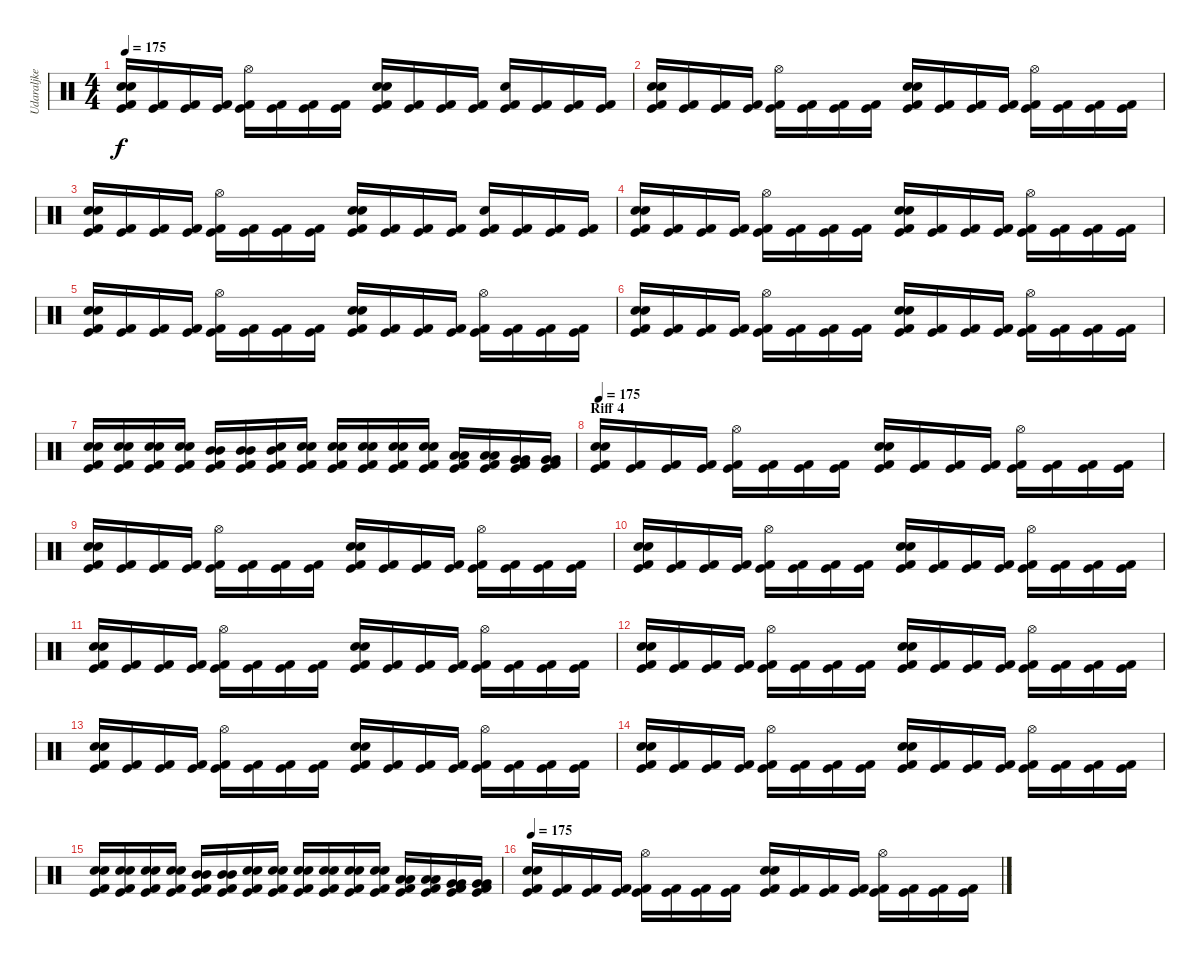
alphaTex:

\track ("Udaraljke" "Udaraljke") {instrument percussion}
\staff {score}
\articulation defaults
\ts (4 4)
\tempo 175
\clef neutral
\ks c
("Electric Snare (hit)" "Snare (hit) 2" "Kick (hit) 2" "Kick (hit)").16{dy f} ("Kick (hit) 2" "Kick (hit)").16 ("Kick (hit) 2" "Kick (hit)").16 ("Kick (hit) 2" "Kick (hit)").16 ("Hi-Hat (open)" "Kick (hit) 2" "Kick (hit)").16 ("Kick (hit) 2" "Kick (hit)").16 ("Kick (hit) 2" "Kick (hit)").16 ("Kick (hit) 2" "Kick (hit)").16 ("Electric Snare (hit)" "Snare (hit) 2" "Kick (hit) 2" "Kick (hit)").16 ("Kick (hit) 2" "Kick (hit)").16 ("Kick (hit) 2" "Kick (hit)").16 ("Kick (hit) 2" "Kick (hit)").16 ("Electric Snare (hit)" "Kick (hit) 2" "Kick (hit)").16 ("Kick (hit) 2" "Kick (hit)").16 ("Kick (hit) 2" "Kick (hit)").16 ("Kick (hit) 2" "Kick (hit)").16 |
("Electric Snare (hit)" "Snare (hit) 2" "Kick (hit) 2" "Kick (hit)").16 ("Kick (hit) 2" "Kick (hit)").16 ("Kick (hit) 2" "Kick (hit)").16 ("Kick (hit) 2" "Kick (hit)").16 ("Hi-Hat (open)" "Kick (hit) 2" "Kick (hit)").16 ("Kick (hit) 2" "Kick (hit)").16 ("Kick (hit) 2" "Kick (hit)").16 ("Kick (hit) 2" "Kick (hit)").16 ("Electric Snare (hit)" "Snare (hit) 2" "Kick (hit) 2" "Kick (hit)").16 ("Kick (hit) 2" "Kick (hit)").16 ("Kick (hit) 2" "Kick (hit)").16 ("Kick (hit) 2" "Kick (hit)").16 ("Hi-Hat (open)" "Kick (hit) 2" "Kick (hit)").16 ("Kick (hit) 2" "Kick (hit)").16 ("Kick (hit) 2" "Kick (hit)").16 ("Kick (hit) 2" "Kick (hit)").16 |
("Electric Snare (hit)" "Snare (hit) 2" "Kick (hit) 2" "Kick (hit)").16 ("Kick (hit) 2" "Kick (hit)").16 ("Kick (hit) 2" "Kick (hit)").16 ("Kick (hit) 2" "Kick (hit)").16 ("Hi-Hat (open)" "Kick (hit) 2" "Kick (hit)").16 ("Kick (hit) 2" "Kick (hit)").16 ("Kick (hit) 2" "Kick (hit)").16 ("Kick (hit) 2" "Kick (hit)").16 ("Electric Snare (hit)" "Snare (hit) 2" "Kick (hit) 2" "Kick (hit)").16 ("Kick (hit) 2" "Kick (hit)").16 ("Kick (hit) 2" "Kick (hit)").16 ("Kick (hit) 2" "Kick (hit)").16 ("Electric Snare (hit)" "Kick (hit) 2" "Kick (hit)").16 ("Kick (hit) 2" "Kick (hit)").16 ("Kick (hit) 2" "Kick (hit)").16 ("Kick (hit) 2" "Kick (hit)").16 |
("Electric Snare (hit)" "Snare (hit) 2" "Kick (hit) 2" "Kick (hit)").16 ("Kick (hit) 2" "Kick (hit)").16 ("Kick (hit) 2" "Kick (hit)").16 ("Kick (hit) 2" "Kick (hit)").16 ("Hi-Hat (open)" "Kick (hit) 2" "Kick (hit)").16 ("Kick (hit) 2" "Kick (hit)").16 ("Kick (hit) 2" "Kick (hit)").16 ("Kick (hit) 2" "Kick (hit)").16 ("Electric Snare (hit)" "Snare (hit) 2" "Kick (hit) 2" "Kick (hit)").16 ("Kick (hit) 2" "Kick (hit)").16 ("Kick (hit) 2" "Kick (hit)").16 ("Kick (hit) 2" "Kick (hit)").16 ("Hi-Hat (open)" "Kick (hit) 2" "Kick (hit)").16 ("Kick (hit) 2" "Kick (hit)").16 ("Kick (hit) 2" "Kick (hit)").16 ("Kick (hit) 2" "Kick (hit)").16 |
("Electric Snare (hit)" "Snare (hit) 2" "Kick (hit) 2" "Kick (hit)").16 ("Kick (hit) 2" "Kick (hit)").16 ("Kick (hit) 2" "Kick (hit)").16 ("Kick (hit) 2" "Kick (hit)").16 ("Hi-Hat (open)" "Kick (hit) 2" "Kick (hit)").16 ("Kick (hit) 2" "Kick (hit)").16 ("Kick (hit) 2" "Kick (hit)").16 ("Kick (hit) 2" "Kick (hit)").16 ("Electric Snare (hit)" "Snare (hit) 2" "Kick (hit) 2" "Kick (hit)").16 ("Kick (hit) 2" "Kick (hit)").16 ("Kick (hit) 2" "Kick (hit)").16 ("Kick (hit) 2" "Kick (hit)").16 ("Hi-Hat (open)" "Kick (hit) 2" "Kick (hit)").16 ("Kick (hit) 2" "Kick (hit)").16 ("Kick (hit) 2" "Kick (hit)").16 ("Kick (hit) 2" "Kick (hit)").16 |
("Electric Snare (hit)" "Snare (hit) 2" "Kick (hit) 2" "Kick (hit)").16 ("Kick (hit) 2" "Kick (hit)").16 ("Kick (hit) 2" "Kick (hit)").16 ("Kick (hit) 2" "Kick (hit)").16 ("Hi-Hat (open)" "Kick (hit) 2" "Kick (hit)").16 ("Kick (hit) 2" "Kick (hit)").16 ("Kick (hit) 2" "Kick (hit)").16 ("Kick (hit) 2" "Kick (hit)").16 ("Electric Snare (hit)" "Snare (hit) 2" "Kick (hit) 2" "Kick (hit)").16 ("Kick (hit) 2" "Kick (hit)").16 ("Kick (hit) 2" "Kick (hit)").16 ("Kick (hit) 2" "Kick (hit)").16 ("Hi-Hat (open)" "Kick (hit) 2" "Kick (hit)").16 ("Kick (hit) 2" "Kick (hit)").16 ("Kick (hit) 2" "Kick (hit)").16 ("Kick (hit) 2" "Kick (hit)").16 |
("Electric Snare (hit)" "Electric Snare (hit)" "Kick (hit) 2" "Kick (hit)").16 ("Electric Snare (hit)" "Electric Snare (hit)" "Kick (hit) 2" "Kick (hit)").16 ("Electric Snare (hit)" "Electric Snare (hit)" "Kick (hit) 2" "Kick (hit)").16 ("Electric Snare (hit)" "Electric Snare (hit)" "Kick (hit) 2" "Kick (hit)").16 ("Mid Tom (hit)" "Mid Tom (hit)" "Kick (hit) 2" "Kick (hit)").16 ("Mid Tom (hit)" "Mid Tom (hit)" "Kick (hit) 2" "Kick (hit)").16 ("Electric Snare (hit)" "Mid Tom (hit)" "Kick (hit) 2" "Kick (hit)").16 ("Electric Snare (hit)" "Electric Snare (hit)" "Kick (hit) 2" "Kick (hit)").16 ("Electric Snare (hit)" "Electric Snare (hit)" "Kick (hit) 2" "Kick (hit)").16 ("Electric Snare (hit)" "Electric Snare (hit)" "Kick (hit) 2" "Kick (hit)").16 ("Electric Snare (hit)" "Electric Snare (hit)" "Kick (hit) 2" "Kick (hit)").16 ("Electric Snare (hit)" "Electric Snare (hit)" "Kick (hit) 2" "Kick (hit)").16 ("Low Tom (hit)" "Low Tom (hit)" "Kick (hit) 2" "Kick (hit)").16 ("Low Tom (hit)" "Low Tom (hit)" "Kick (hit) 2" "Kick (hit)").16 ("Very Low Tom (hit)" "Very Low Tom (hit)" "Kick (hit) 2" "Kick (hit)").16 ("Very Low Tom (hit)" "Very Low Tom (hit)" "Kick (hit) 2" "Kick (hit)").16 |
\section ("" "Riff 4")
\tempo 175
("Electric Snare (hit)" "Snare (hit) 2" "Kick (hit) 2" "Kick (hit)").16 ("Kick (hit) 2" "Kick (hit)").16 ("Kick (hit) 2" "Kick (hit)").16 ("Kick (hit) 2" "Kick (hit)").16 ("Hi-Hat (open)" "Kick (hit) 2" "Kick (hit)").16 ("Kick (hit) 2" "Kick (hit)").16 ("Kick (hit) 2" "Kick (hit)").16 ("Kick (hit) 2" "Kick (hit)").16 ("Electric Snare (hit)" "Snare (hit) 2" "Kick (hit) 2" "Kick (hit)").16 ("Kick (hit) 2" "Kick (hit)").16 ("Kick (hit) 2" "Kick (hit)").16 ("Kick (hit) 2" "Kick (hit)").16 ("Hi-Hat (open)" "Kick (hit) 2" "Kick (hit)").16 ("Kick (hit) 2" "Kick (hit)").16 ("Kick (hit) 2" "Kick (hit)").16 ("Kick (hit) 2" "Kick (hit)").16 |
("Electric Snare (hit)" "Snare (hit) 2" "Kick (hit) 2" "Kick (hit)").16 ("Kick (hit) 2" "Kick (hit)").16 ("Kick (hit) 2" "Kick (hit)").16 ("Kick (hit) 2" "Kick (hit)").16 ("Hi-Hat (open)" "Kick (hit) 2" "Kick (hit)").16 ("Kick (hit) 2" "Kick (hit)").16 ("Kick (hit) 2" "Kick (hit)").16 ("Kick (hit) 2" "Kick (hit)").16 ("Electric Snare (hit)" "Snare (hit) 2" "Kick (hit) 2" "Kick (hit)").16 ("Kick (hit) 2" "Kick (hit)").16 ("Kick (hit) 2" "Kick (hit)").16 ("Kick (hit) 2" "Kick (hit)").16 ("Hi-Hat (open)" "Kick (hit) 2" "Kick (hit)").16 ("Kick (hit) 2" "Kick (hit)").16 ("Kick (hit) 2" "Kick (hit)").16 ("Kick (hit) 2" "Kick (hit)").16 |
("Electric Snare (hit)" "Snare (hit) 2" "Kick (hit) 2" "Kick (hit)").16 ("Kick (hit) 2" "Kick (hit)").16 ("Kick (hit) 2" "Kick (hit)").16 ("Kick (hit) 2" "Kick (hit)").16 ("Hi-Hat (open)" "Kick (hit) 2" "Kick (hit)").16 ("Kick (hit) 2" "Kick (hit)").16 ("Kick (hit) 2" "Kick (hit)").16 ("Kick (hit) 2" "Kick (hit)").16 ("Electric Snare (hit)" "Snare (hit) 2" "Kick (hit) 2" "Kick (hit)").16 ("Kick (hit) 2" "Kick (hit)").16 ("Kick (hit) 2" "Kick (hit)").16 ("Kick (hit) 2" "Kick (hit)").16 ("Hi-Hat (open)" "Kick (hit) 2" "Kick (hit)").16 ("Kick (hit) 2" "Kick (hit)").16 ("Kick (hit) 2" "Kick (hit)").16 ("Kick (hit) 2" "Kick (hit)").16 |
("Electric Snare (hit)" "Snare (hit) 2" "Kick (hit) 2" "Kick (hit)").16 ("Kick (hit) 2" "Kick (hit)").16 ("Kick (hit) 2" "Kick (hit)").16 ("Kick (hit) 2" "Kick (hit)").16 ("Hi-Hat (open)" "Kick (hit) 2" "Kick (hit)").16 ("Kick (hit) 2" "Kick (hit)").16 ("Kick (hit) 2" "Kick (hit)").16 ("Kick (hit) 2" "Kick (hit)").16 ("Electric Snare (hit)" "Snare (hit) 2" "Kick (hit) 2" "Kick (hit)").16 ("Kick (hit) 2" "Kick (hit)").16 ("Kick (hit) 2" "Kick (hit)").16 ("Kick (hit) 2" "Kick (hit)").16 ("Hi-Hat (open)" "Kick (hit) 2" "Kick (hit)").16 ("Kick (hit) 2" "Kick (hit)").16 ("Kick (hit) 2" "Kick (hit)").16 ("Kick (hit) 2" "Kick (hit)").16 |
("Electric Snare (hit)" "Snare (hit) 2" "Kick (hit) 2" "Kick (hit)").16 ("Kick (hit) 2" "Kick (hit)").16 ("Kick (hit) 2" "Kick (hit)").16 ("Kick (hit) 2" "Kick (hit)").16 ("Hi-Hat (open)" "Kick (hit) 2" "Kick (hit)").16 ("Kick (hit) 2" "Kick (hit)").16 ("Kick (hit) 2" "Kick (hit)").16 ("Kick (hit) 2" "Kick (hit)").16 ("Electric Snare (hit)" "Snare (hit) 2" "Kick (hit) 2" "Kick (hit)").16 ("Kick (hit) 2" "Kick (hit)").16 ("Kick (hit) 2" "Kick (hit)").16 ("Kick (hit) 2" "Kick (hit)").16 ("Hi-Hat (open)" "Kick (hit) 2" "Kick (hit)").16 ("Kick (hit) 2" "Kick (hit)").16 ("Kick (hit) 2" "Kick (hit)").16 ("Kick (hit) 2" "Kick (hit)").16 |
("Electric Snare (hit)" "Snare (hit) 2" "Kick (hit) 2" "Kick (hit)").16 ("Kick (hit) 2" "Kick (hit)").16 ("Kick (hit) 2" "Kick (hit)").16 ("Kick (hit) 2" "Kick (hit)").16 ("Hi-Hat (open)" "Kick (hit) 2" "Kick (hit)").16 ("Kick (hit) 2" "Kick (hit)").16 ("Kick (hit) 2" "Kick (hit)").16 ("Kick (hit) 2" "Kick (hit)").16 ("Electric Snare (hit)" "Snare (hit) 2" "Kick (hit) 2" "Kick (hit)").16 ("Kick (hit) 2" "Kick (hit)").16 ("Kick (hit) 2" "Kick (hit)").16 ("Kick (hit) 2" "Kick (hit)").16 ("Hi-Hat (open)" "Kick (hit) 2" "Kick (hit)").16 ("Kick (hit) 2" "Kick (hit)").16 ("Kick (hit) 2" "Kick (hit)").16 ("Kick (hit) 2" "Kick (hit)").16 |
("Electric Snare (hit)" "Snare (hit) 2" "Kick (hit) 2" "Kick (hit)").16 ("Kick (hit) 2" "Kick (hit)").16 ("Kick (hit) 2" "Kick (hit)").16 ("Kick (hit) 2" "Kick (hit)").16 ("Hi-Hat (open)" "Kick (hit) 2" "Kick (hit)").16 ("Kick (hit) 2" "Kick (hit)").16 ("Kick (hit) 2" "Kick (hit)").16 ("Kick (hit) 2" "Kick (hit)").16 ("Electric Snare (hit)" "Snare (hit) 2" "Kick (hit) 2" "Kick (hit)").16 ("Kick (hit) 2" "Kick (hit)").16 ("Kick (hit) 2" "Kick (hit)").16 ("Kick (hit) 2" "Kick (hit)").16 ("Hi-Hat (open)" "Kick (hit) 2" "Kick (hit)").16 ("Kick (hit) 2" "Kick (hit)").16 ("Kick (hit) 2" "Kick (hit)").16 ("Kick (hit) 2" "Kick (hit)").16 |
("Electric Snare (hit)" "Electric Snare (hit)" "Kick (hit) 2" "Kick (hit)").16 ("Electric Snare (hit)" "Electric Snare (hit)" "Kick (hit) 2" "Kick (hit)").16 ("Electric Snare (hit)" "Electric Snare (hit)" "Kick (hit) 2" "Kick (hit)").16 ("Electric Snare (hit)" "Electric Snare (hit)" "Kick (hit) 2" "Kick (hit)").16 ("Mid Tom (hit)" "Mid Tom (hit)" "Kick (hit) 2" "Kick (hit)").16 ("Mid Tom (hit)" "Mid Tom (hit)" "Kick (hit) 2" "Kick (hit)").16 ("Electric Snare (hit)" "Electric Snare (hit)" "Kick (hit) 2" "Kick (hit)").16 ("Electric Snare (hit)" "Electric Snare (hit)" "Kick (hit) 2" "Kick (hit)").16 ("Electric Snare (hit)" "Electric Snare (hit)" "Kick (hit) 2" "Kick (hit)").16 ("Electric Snare (hit)" "Electric Snare (hit)" "Kick (hit) 2" "Kick (hit)").16 ("Electric Snare (hit)" "Electric Snare (hit)" "Kick (hit) 2" "Kick (hit)").16 ("Electric Snare (hit)" "Electric Snare (hit)" "Kick (hit) 2" "Kick (hit)").16 ("Low Tom (hit)" "Low Tom (hit)" "Kick (hit) 2" "Kick (hit)").16 ("Low Tom (hit)" "Low Tom (hit)" "Kick (hit) 2" "Kick (hit)").16 ("Very Low Tom (hit)" "Very Low Tom (hit)" "Kick (hit) 2" "Kick (hit)").16 ("Very Low Tom (hit)" "Very Low Tom (hit)" "Kick (hit) 2" "Kick (hit)").16 |
\tempo 175
("Electric Snare (hit)" "Snare (hit) 2" "Kick (hit) 2" "Kick (hit)").16 ("Kick (hit) 2" "Kick (hit)").16 ("Kick (hit) 2" "Kick (hit)").16 ("Kick (hit) 2" "Kick (hit)").16 ("Hi-Hat (open)" "Kick (hit) 2" "Kick (hit)").16 ("Kick (hit) 2" "Kick (hit)").16 ("Kick (hit) 2" "Kick (hit)").16 ("Kick (hit) 2" "Kick (hit)").16 ("Electric Snare (hit)" "Snare (hit) 2" "Kick (hit) 2" "Kick (hit)").16 ("Kick (hit) 2" "Kick (hit)").16 ("Kick (hit) 2" "Kick (hit)").16 ("Kick (hit) 2" "Kick (hit)").16 ("Hi-Hat (open)" "Kick (hit) 2" "Kick (hit)").16 ("Kick (hit) 2" "Kick (hit)").16 ("Kick (hit) 2" "Kick (hit)").16 ("Kick (hit) 2" "Kick (hit)").16
